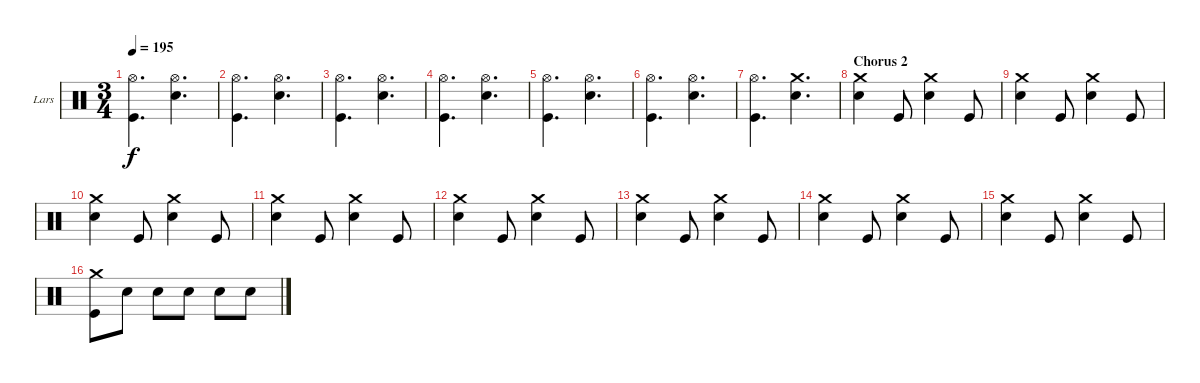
\bracketExtendMode groupsimilarinstruments
\firstSystemTrackNameOrientation horizontal
\otherSystemsTrackNameOrientation horizontal
\track ("Drumkit" "Lars") {instrument percussion}
\staff {score}
\articulation defaults
\ts (3 4)
\tempo 195
\clef neutral
\ks c
("Hi-Hat (open)" "Kick (hit)").4{d dy f} ("Hi-Hat (open)" "Snare (hit) 2").4{d} |
("Hi-Hat (open)" "Kick (hit)").4{d} ("Hi-Hat (open)" "Snare (hit) 2").4{d} |
("Hi-Hat (open)" "Kick (hit)").4{d} ("Hi-Hat (open)" "Snare (hit) 2").4{d} |
("Hi-Hat (open)" "Kick (hit)").4{d} ("Hi-Hat (open)" "Snare (hit) 2").4{d} |
("Hi-Hat (open)" "Kick (hit)").4{d} ("Hi-Hat (open)" "Snare (hit) 2").4{d} |
("Hi-Hat (open)" "Kick (hit)").4{d} ("Hi-Hat (open)" "Snare (hit) 2").4{d} |
("Hi-Hat (open)" "Kick (hit)").4{d} ("Crash medium (hit)" "Snare (hit) 2").4{d} |
\section ("" "Chorus 2")
("Crash medium (hit)" "Snare (hit) 2").4 "Kick (hit)".8 ("Crash medium (hit)" "Snare (hit) 2").4 "Kick (hit)".8 |
("Crash medium (hit)" "Snare (hit) 2").4 "Kick (hit)".8 ("Crash medium (hit)" "Snare (hit) 2").4 "Kick (hit)".8 |
("Crash medium (hit)" "Snare (hit) 2").4 "Kick (hit)".8 ("Crash medium (hit)" "Snare (hit) 2").4 "Kick (hit)".8 |
("Crash medium (hit)" "Snare (hit) 2").4 "Kick (hit)".8 ("Crash medium (hit)" "Snare (hit) 2").4 "Kick (hit)".8 |
("Crash medium (hit)" "Snare (hit) 2").4 "Kick (hit)".8 ("Crash medium (hit)" "Snare (hit) 2").4 "Kick (hit)".8 |
("Crash medium (hit)" "Snare (hit) 2").4 "Kick (hit)".8 ("Crash medium (hit)" "Snare (hit) 2").4 "Kick (hit)".8 |
("Crash medium (hit)" "Snare (hit) 2").4 "Kick (hit)".8 ("Crash medium (hit)" "Snare (hit) 2").4 "Kick (hit)".8 |
("Crash medium (hit)" "Snare (hit) 2").4 "Kick (hit)".8 ("Crash medium (hit)" "Snare (hit) 2").4 "Kick (hit)".8 |
("Crash medium (hit)" "Kick (hit)").8 "Snare (hit) 2".8 "Snare (hit) 2".8 "Snare (hit) 2".8 "Snare (hit) 2".8 "Snare (hit) 2".8
